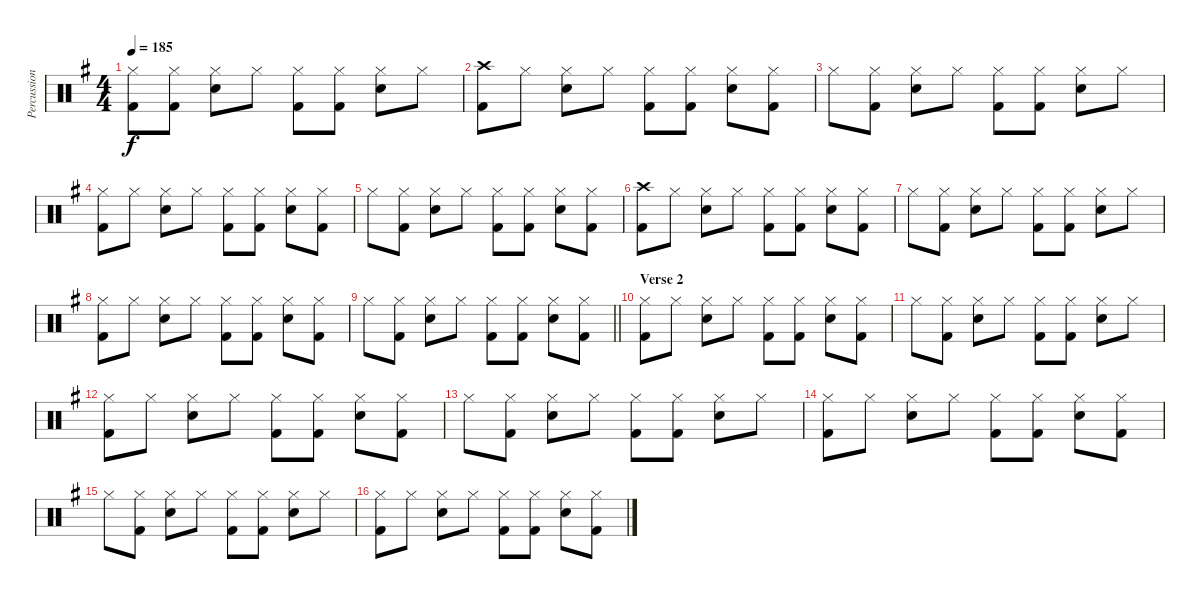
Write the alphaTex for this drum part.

\track ("Percussion" "Percussion") {instrument percussion}
\staff {score}
\articulation defaults
\ts (4 4)
\tempo 185
\clef neutral
\ks g
("Hi-Hat (closed)" "Kick (hit) 2").8{dy f} ("Hi-Hat (closed)" "Kick (hit) 2").8 ("Hi-Hat (closed)" "Snare (hit) 2").8 "Hi-Hat (closed)".8 ("Hi-Hat (closed)" "Kick (hit) 2").8 ("Hi-Hat (closed)" "Kick (hit) 2").8 ("Hi-Hat (closed)" "Snare (hit) 2").8 "Hi-Hat (closed)".8 |
("Crash high (hit)" "Kick (hit) 2").8 "Hi-Hat (closed)".8 ("Hi-Hat (closed)" "Snare (hit) 2").8 "Hi-Hat (closed)".8 ("Hi-Hat (closed)" "Kick (hit) 2").8 ("Hi-Hat (closed)" "Kick (hit) 2").8 ("Hi-Hat (closed)" "Snare (hit) 2").8 ("Hi-Hat (closed)" "Kick (hit) 2").8 |
"Hi-Hat (closed)".8 ("Kick (hit) 2" "Hi-Hat (closed)").8 ("Snare (hit) 2" "Hi-Hat (closed)").8 "Hi-Hat (closed)".8 ("Kick (hit) 2" "Hi-Hat (closed)").8 ("Kick (hit) 2" "Hi-Hat (closed)").8 ("Snare (hit) 2" "Hi-Hat (closed)").8 "Hi-Hat (closed)".8 |
("Hi-Hat (closed)" "Kick (hit) 2").8 "Hi-Hat (closed)".8 ("Hi-Hat (closed)" "Snare (hit) 2").8 "Hi-Hat (closed)".8 ("Hi-Hat (closed)" "Kick (hit) 2").8 ("Hi-Hat (closed)" "Kick (hit) 2").8 ("Hi-Hat (closed)" "Snare (hit) 2").8 ("Hi-Hat (closed)" "Kick (hit) 2").8 |
"Hi-Hat (closed)".8 ("Hi-Hat (closed)" "Kick (hit) 2").8 ("Hi-Hat (closed)" "Snare (hit) 2").8 "Hi-Hat (closed)".8 ("Hi-Hat (closed)" "Kick (hit) 2").8 ("Hi-Hat (closed)" "Kick (hit) 2").8 ("Hi-Hat (closed)" "Snare (hit) 2").8 ("Hi-Hat (closed)" "Kick (hit) 2").8 |
("Crash high (hit)" "Kick (hit) 2").8 "Hi-Hat (closed)".8 ("Hi-Hat (closed)" "Snare (hit) 2").8 "Hi-Hat (closed)".8 ("Hi-Hat (closed)" "Kick (hit) 2").8 ("Hi-Hat (closed)" "Kick (hit) 2").8 ("Hi-Hat (closed)" "Snare (hit) 2").8 ("Hi-Hat (closed)" "Kick (hit) 2").8 |
"Hi-Hat (closed)".8 ("Kick (hit) 2" "Hi-Hat (closed)").8 ("Snare (hit) 2" "Hi-Hat (closed)").8 "Hi-Hat (closed)".8 ("Kick (hit) 2" "Hi-Hat (closed)").8 ("Kick (hit) 2" "Hi-Hat (closed)").8 ("Snare (hit) 2" "Hi-Hat (closed)").8 "Hi-Hat (closed)".8 |
("Hi-Hat (closed)" "Kick (hit) 2").8 "Hi-Hat (closed)".8 ("Hi-Hat (closed)" "Snare (hit) 2").8 "Hi-Hat (closed)".8 ("Hi-Hat (closed)" "Kick (hit) 2").8 ("Hi-Hat (closed)" "Kick (hit) 2").8 ("Hi-Hat (closed)" "Snare (hit) 2").8 ("Hi-Hat (closed)" "Kick (hit) 2").8 |
\barLineRight lightlight "Hi-Hat (closed)".8
("Hi-Hat (closed)" "Kick (hit) 2").8 ("Hi-Hat (closed)" "Snare (hit) 2").8 "Hi-Hat (closed)".8 ("Hi-Hat (closed)" "Kick (hit) 2").8 ("Hi-Hat (closed)" "Kick (hit) 2").8 ("Hi-Hat (closed)" "Snare (hit) 2").8 ("Hi-Hat (closed)" "Kick (hit) 2").8 |
\section ("" "Verse 2")
("Hi-Hat (closed)" "Kick (hit) 2").8 "Hi-Hat (closed)".8 ("Hi-Hat (closed)" "Snare (hit) 2").8 "Hi-Hat (closed)".8 ("Hi-Hat (closed)" "Kick (hit) 2").8 ("Hi-Hat (closed)" "Kick (hit) 2").8 ("Hi-Hat (closed)" "Snare (hit) 2").8 ("Hi-Hat (closed)" "Kick (hit) 2").8 |
"Hi-Hat (closed)".8 ("Hi-Hat (closed)" "Kick (hit) 2").8 ("Hi-Hat (closed)" "Snare (hit) 2").8 "Hi-Hat (closed)".8 ("Hi-Hat (closed)" "Kick (hit) 2").8 ("Hi-Hat (closed)" "Kick (hit) 2").8 ("Hi-Hat (closed)" "Snare (hit) 2").8 "Hi-Hat (closed)".8 |
("Hi-Hat (closed)" "Kick (hit) 2").8 "Hi-Hat (closed)".8 ("Hi-Hat (closed)" "Snare (hit) 2").8 "Hi-Hat (closed)".8 ("Hi-Hat (closed)" "Kick (hit) 2").8 ("Hi-Hat (closed)" "Kick (hit) 2").8 ("Hi-Hat (closed)" "Snare (hit) 2").8 ("Hi-Hat (closed)" "Kick (hit) 2").8 |
"Hi-Hat (closed)".8 ("Hi-Hat (closed)" "Kick (hit) 2").8 ("Hi-Hat (closed)" "Snare (hit) 2").8 "Hi-Hat (closed)".8 ("Hi-Hat (closed)" "Kick (hit) 2").8 ("Hi-Hat (closed)" "Kick (hit) 2").8 ("Hi-Hat (closed)" "Snare (hit) 2").8 "Hi-Hat (closed)".8 |
("Hi-Hat (closed)" "Kick (hit) 2").8 "Hi-Hat (closed)".8 ("Hi-Hat (closed)" "Snare (hit) 2").8 "Hi-Hat (closed)".8 ("Hi-Hat (closed)" "Kick (hit) 2").8 ("Hi-Hat (closed)" "Kick (hit) 2").8 ("Hi-Hat (closed)" "Snare (hit) 2").8 ("Hi-Hat (closed)" "Kick (hit) 2").8 |
"Hi-Hat (closed)".8 ("Hi-Hat (closed)" "Kick (hit) 2").8 ("Hi-Hat (closed)" "Snare (hit) 2").8 "Hi-Hat (closed)".8 ("Hi-Hat (closed)" "Kick (hit) 2").8 ("Hi-Hat (closed)" "Kick (hit) 2").8 ("Hi-Hat (closed)" "Snare (hit) 2").8 "Hi-Hat (closed)".8 |
("Hi-Hat (closed)" "Kick (hit) 2").8 "Hi-Hat (closed)".8 ("Hi-Hat (closed)" "Snare (hit) 2").8 "Hi-Hat (closed)".8 ("Hi-Hat (closed)" "Kick (hit) 2").8 ("Hi-Hat (closed)" "Kick (hit) 2").8 ("Hi-Hat (closed)" "Snare (hit) 2").8 ("Hi-Hat (closed)" "Kick (hit) 2").8
